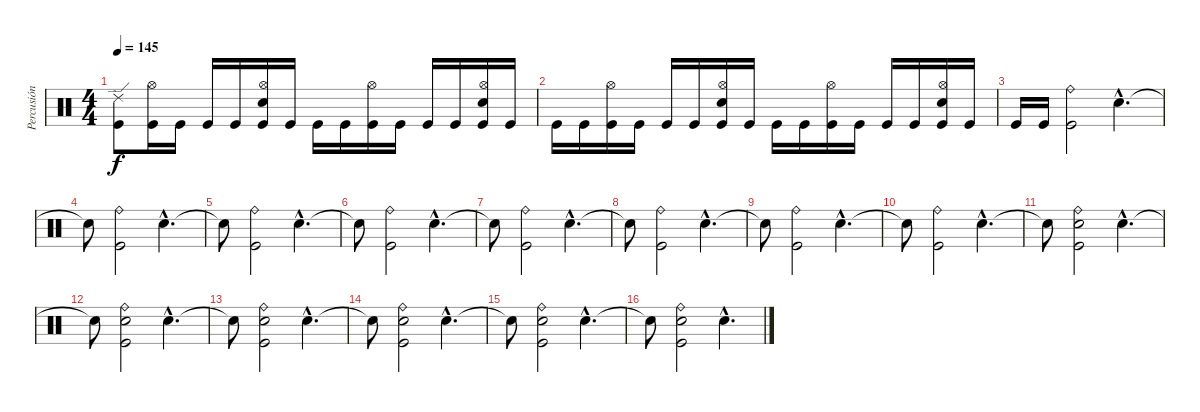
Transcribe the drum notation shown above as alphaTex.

\track ("Percusión" "Percusión") {instrument percussion}
\staff {score}
\articulation defaults
\ts (4 4)
\tempo 145
\clef neutral
\ks c
("Ride (edge) 2" "Kick (hit)").8{dy f} ("Hi-Hat (open)" "Kick (hit)").16 "Kick (hit)".16 "Kick (hit)".16 "Kick (hit)".16 ("Hi-Hat (open)" "Snare (hit) 2" "Kick (hit)").16 "Kick (hit)".16 "Kick (hit)".16 "Kick (hit)".16 ("Hi-Hat (open)" "Kick (hit)").16 "Kick (hit)".16 "Kick (hit)".16 "Kick (hit)".16 ("Hi-Hat (open)" "Snare (hit) 2" "Kick (hit)").16 "Kick (hit)".16 |
"Kick (hit)".16 "Kick (hit)".16 ("Hi-Hat (open)" "Kick (hit)").16 "Kick (hit)".16 "Kick (hit)".16 "Kick (hit)".16 ("Hi-Hat (open)" "Snare (hit) 2" "Kick (hit)").16 "Kick (hit)".16 "Kick (hit)".16 "Kick (hit)".16 ("Hi-Hat (open)" "Kick (hit)").16 "Kick (hit)".16 "Kick (hit)".16 "Kick (hit)".16 ("Hi-Hat (open)" "Snare (hit) 2" "Kick (hit)").16 "Kick (hit)".16 |
"Kick (hit)".16 "Kick (hit)".16 ("Ride (bell)" "Kick (hit)").2 "Snare (hit) 2"{hac}.4{d} |
"Snare (hit)"{t}.8 ("Ride (bell)" "Kick (hit)").2 "Snare (hit) 2"{hac}.4{d} |
"Snare (hit)"{t}.8 ("Ride (bell)" "Kick (hit)").2 "Snare (hit) 2"{hac}.4{d} |
"Snare (hit)"{t}.8 ("Ride (bell)" "Kick (hit)").2 "Snare (hit) 2"{hac}.4{d} |
"Snare (hit)"{t}.8 ("Ride (bell)" "Kick (hit)").2 "Snare (hit) 2"{hac}.4{d} |
"Snare (hit)"{t}.8 ("Ride (bell)" "Kick (hit)").2 "Snare (hit) 2"{hac}.4{d} |
"Snare (hit)"{t}.8 ("Ride (bell)" "Kick (hit)").2 "Snare (hit) 2"{hac}.4{d} |
"Snare (hit)"{t}.8 ("Ride (bell)" "Kick (hit)").2 "Snare (hit) 2"{hac}.4{d} |
"Snare (hit)"{t}.8 ("Ride (bell)" "Snare (hit) 2" "Kick (hit)").2 "Snare (hit) 2"{hac}.4{d} |
"Snare (hit)"{t}.8 ("Ride (bell)" "Snare (hit) 2" "Kick (hit)").2 "Snare (hit) 2"{hac}.4{d} |
"Snare (hit)"{t}.8 ("Ride (bell)" "Snare (hit) 2" "Kick (hit)").2 "Snare (hit) 2"{hac}.4{d} |
"Snare (hit)"{t}.8 ("Ride (bell)" "Snare (hit) 2" "Kick (hit)").2 "Snare (hit) 2"{hac}.4{d} |
"Snare (hit)"{t}.8 ("Ride (bell)" "Snare (hit) 2" "Kick (hit)").2 "Snare (hit) 2"{hac}.4{d} |
"Snare (hit)"{t}.8 ("Ride (bell)" "Snare (hit) 2" "Kick (hit)").2 "Snare (hit) 2"{hac}.4{d}
